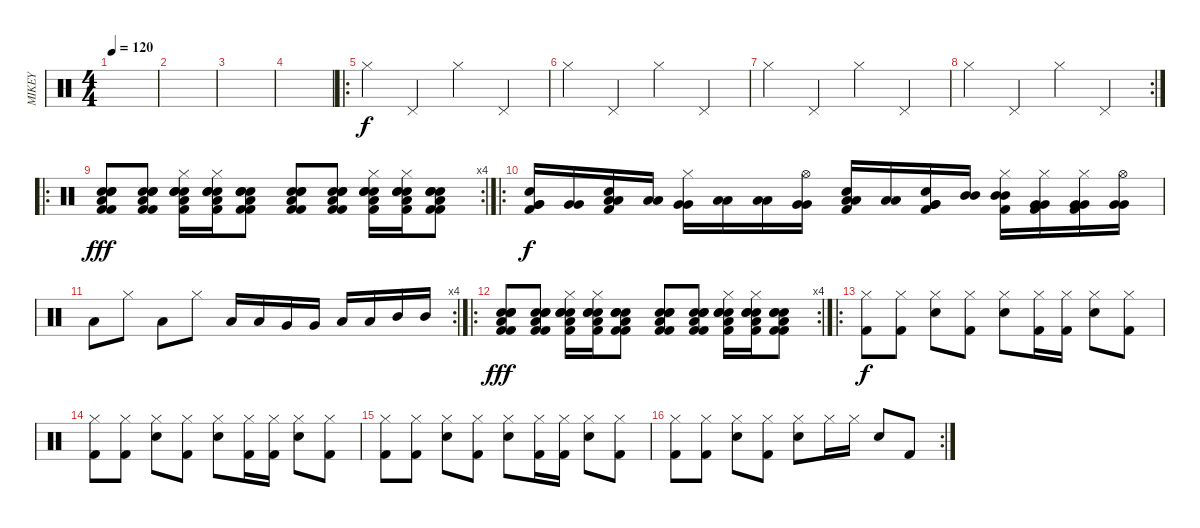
\track ("MIKEY" "MIKEY") {instrument percussion}
\staff {score}
\articulation defaults
\ts (4 4)
\tempo 120
\clef neutral
\ks c
|
|
|
|
\ro "Hi-Hat (closed)".4 "Pedal Hi-Hat (hit)".4 "Hi-Hat (closed)".4 "Pedal Hi-Hat (hit)".4
|
"Hi-Hat (closed)".4 "Pedal Hi-Hat (hit)".4 "Hi-Hat (closed)".4 "Pedal Hi-Hat (hit)".4 |
"Hi-Hat (closed)".4 "Pedal Hi-Hat (hit)".4 "Hi-Hat (closed)".4 "Pedal Hi-Hat (hit)".4 |
\rc 2 "Hi-Hat (closed)".4 "Pedal Hi-Hat (hit)".4 "Hi-Hat (closed)".4 "Pedal Hi-Hat (hit)".4
|
\ro
\rc 4
("Low Floor Tom (hit)" "Electric Snare (hit)" "Snare (hit) 2" "Snare (hit) 2" "Kick (hit) 2" "Kick (hit) 2").8{dy fff} ("Low Floor Tom (hit)" "Electric Snare (hit)" "Snare (hit) 2" "Snare (hit) 2" "Kick (hit) 2" "Kick (hit) 2").8 ("Low Floor Tom (hit)" "Electric Snare (hit)" "Snare (hit) 2" "Snare (hit) 2" "Hi-Hat (closed)" "Kick (hit) 2").16 ("Low Floor Tom (hit)" "Electric Snare (hit)" "Snare (hit) 2" "Snare (hit) 2" "Hi-Hat (closed)" "Kick (hit) 2").16 ("Low Floor Tom (hit)" "Electric Snare (hit)" "Snare (hit) 2" "Snare (hit) 2" "Kick (hit) 2" "Kick (hit) 2").8 ("Low Floor Tom (hit)" "Electric Snare (hit)" "Snare (hit) 2" "Snare (hit) 2" "Kick (hit) 2" "Kick (hit) 2").8 ("Low Floor Tom (hit)" "Electric Snare (hit)" "Snare (hit) 2" "Snare (hit) 2" "Kick (hit) 2" "Kick (hit) 2").8 ("Low Floor Tom (hit)" "Electric Snare (hit)" "Snare (hit) 2" "Snare (hit) 2" "Hi-Hat (closed)" "Kick (hit) 2").16 ("Low Floor Tom (hit)" "Electric Snare (hit)" "Snare (hit) 2" "Snare (hit) 2" "Hi-Hat (closed)" "Kick (hit) 2").16 ("Low Floor Tom (hit)" "Electric Snare (hit)" "Snare (hit) 2" "Snare (hit) 2" "Kick (hit) 2" "Kick (hit) 2").8 |
\ro
("Electric Snare (hit)" "Kick (hit) 2" "Very Low Tom (hit)" "Very Low Tom (hit)").16{dy f} ("Very Low Tom (hit)" "Very Low Tom (hit)").16 ("Electric Snare (hit)" "Kick (hit) 2" "Low Tom (hit)" "Low Tom (hit)").16 ("Low Tom (hit)" "Low Tom (hit)").16 ("Hi-Hat (closed)" "Very Low Tom (hit)" "Very Low Tom (hit)").16 ("Low Floor Tom (hit)" "Low Floor Tom (hit)").16 ("Low Tom (hit)" "Low Tom (hit)").16 ("Hi-Hat (open)" "Very Low Tom (hit)" "Very Low Tom (hit)").16 ("Electric Snare (hit)" "Kick (hit) 2" "Low Floor Tom (hit)" "Low Floor Tom (hit)").16 ("Low Floor Tom (hit)" "Low Floor Tom (hit)").16 ("Electric Snare (hit)" "Kick (hit) 2" "Very Low Tom (hit)" "Very Low Tom (hit)").16 ("Mid Tom (hit)" "Mid Tom (hit)").16 ("Kick (hit) 2" "Hi-Hat (closed)" "Mid Tom (hit)" "Mid Tom (hit)").16 ("Kick (hit) 2" "Hi-Hat (closed)" "Very Low Tom (hit)" "Very Low Tom (hit)").16 ("Kick (hit) 2" "Hi-Hat (closed)" "Very Low Tom (hit)" "Very Low Tom (hit)").16 ("Hi-Hat (open)" "Very Low Tom (hit)" "Very Low Tom (hit)").16 |
\rc 4 "Low Floor Tom (hit)".8 "Hi-Hat (closed)".8 "Low Floor Tom (hit)".8 "Hi-Hat (closed)".8 "Low Floor Tom (hit)".16 "Low Floor Tom (hit)".16 "Very Low Tom (hit)".16 "Very Low Tom (hit)".16 "Low Tom (hit)".16 "Low Tom (hit)".16 "Mid Tom (hit)".16 "Mid Tom (hit)".16
|
\ro
\rc 4
("Low Floor Tom (hit)" "Electric Snare (hit)" "Snare (hit) 2" "Snare (hit) 2" "Kick (hit) 2" "Kick (hit) 2").8{dy fff} ("Low Floor Tom (hit)" "Electric Snare (hit)" "Snare (hit) 2" "Snare (hit) 2" "Kick (hit) 2" "Kick (hit) 2").8 ("Low Floor Tom (hit)" "Electric Snare (hit)" "Snare (hit) 2" "Snare (hit) 2" "Hi-Hat (closed)" "Kick (hit) 2").16 ("Low Floor Tom (hit)" "Electric Snare (hit)" "Snare (hit) 2" "Snare (hit) 2" "Hi-Hat (closed)" "Kick (hit) 2").16 ("Low Floor Tom (hit)" "Electric Snare (hit)" "Snare (hit) 2" "Snare (hit) 2" "Kick (hit) 2" "Kick (hit) 2").8 ("Low Floor Tom (hit)" "Electric Snare (hit)" "Snare (hit) 2" "Snare (hit) 2" "Kick (hit) 2" "Kick (hit) 2").8 ("Low Floor Tom (hit)" "Electric Snare (hit)" "Snare (hit) 2" "Snare (hit) 2" "Kick (hit) 2" "Kick (hit) 2").8 ("Low Floor Tom (hit)" "Electric Snare (hit)" "Snare (hit) 2" "Snare (hit) 2" "Hi-Hat (closed)" "Kick (hit) 2").16 ("Low Floor Tom (hit)" "Electric Snare (hit)" "Snare (hit) 2" "Snare (hit) 2" "Hi-Hat (closed)" "Kick (hit) 2").16 ("Low Floor Tom (hit)" "Electric Snare (hit)" "Snare (hit) 2" "Snare (hit) 2" "Kick (hit) 2" "Kick (hit) 2").8 |
\ro
("Hi-Hat (closed)" "Kick (hit) 2").8{dy f} ("Hi-Hat (closed)" "Kick (hit) 2").8 ("Hi-Hat (closed)" "Electric Snare (hit)").8 ("Hi-Hat (closed)" "Kick (hit) 2").8 ("Hi-Hat (closed)" "Electric Snare (hit)").8 ("Hi-Hat (closed)" "Kick (hit) 2").16 ("Hi-Hat (closed)" "Kick (hit) 2").16 ("Hi-Hat (closed)" "Snare (hit) 2").8 ("Hi-Hat (closed)" "Kick (hit) 2").8 |
("Hi-Hat (closed)" "Kick (hit) 2").8 ("Hi-Hat (closed)" "Kick (hit) 2").8 ("Hi-Hat (closed)" "Electric Snare (hit)").8 ("Hi-Hat (closed)" "Kick (hit) 2").8 ("Hi-Hat (closed)" "Electric Snare (hit)").8 ("Hi-Hat (closed)" "Kick (hit) 2").16 ("Hi-Hat (closed)" "Kick (hit) 2").16 ("Hi-Hat (closed)" "Snare (hit) 2").8 ("Hi-Hat (closed)" "Kick (hit) 2").8 |
("Hi-Hat (closed)" "Kick (hit) 2").8 ("Hi-Hat (closed)" "Kick (hit) 2").8 ("Hi-Hat (closed)" "Electric Snare (hit)").8 ("Hi-Hat (closed)" "Kick (hit) 2").8 ("Hi-Hat (closed)" "Electric Snare (hit)").8 ("Hi-Hat (closed)" "Kick (hit) 2").16 ("Hi-Hat (closed)" "Kick (hit) 2").16 ("Hi-Hat (closed)" "Snare (hit) 2").8 ("Hi-Hat (closed)" "Kick (hit) 2").8 |
\rc 2
("Hi-Hat (closed)" "Kick (hit) 2").8 ("Hi-Hat (closed)" "Kick (hit) 2").8 ("Hi-Hat (closed)" "Electric Snare (hit)").8 ("Hi-Hat (closed)" "Kick (hit) 2").8 ("Hi-Hat (closed)" "Electric Snare (hit)").8 "Hi-Hat (closed)".16 "Hi-Hat (closed)".16 "Snare (hit) 2".8 "Kick (hit) 2".8
